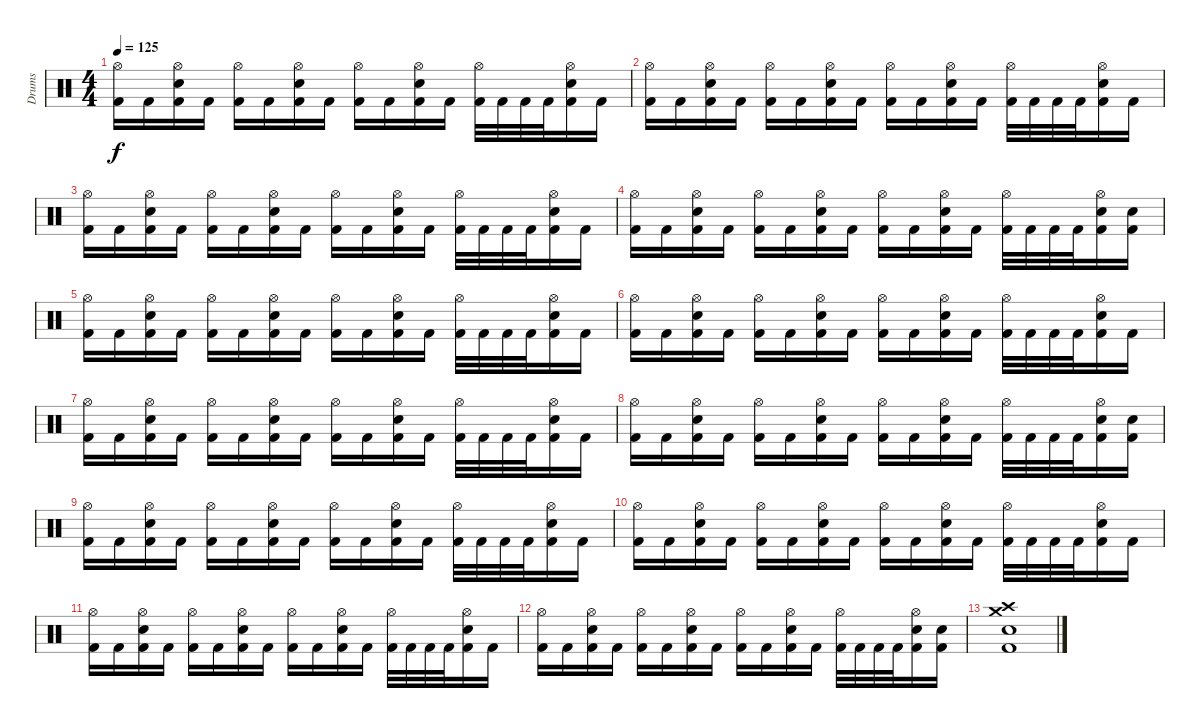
\track ("Drums" "Drums") {instrument percussion}
\staff {score}
\articulation defaults
\ts (4 4)
\tempo 125
\clef neutral
\ks c
("Hi-Hat (open)" "Kick (hit) 2").16{dy f} "Kick (hit) 2".16 ("Hi-Hat (open)" "Electric Snare (hit)" "Kick (hit) 2").16 "Kick (hit) 2".16 ("Hi-Hat (open)" "Kick (hit) 2").16 "Kick (hit) 2".16 ("Hi-Hat (open)" "Electric Snare (hit)" "Kick (hit) 2").16 "Kick (hit) 2".16 ("Hi-Hat (open)" "Kick (hit) 2").16 "Kick (hit) 2".16 ("Hi-Hat (open)" "Electric Snare (hit)" "Kick (hit) 2").16 "Kick (hit) 2".16 ("Hi-Hat (open)" "Kick (hit) 2").32 "Kick (hit) 2".32 "Kick (hit) 2".32 "Kick (hit) 2".32 ("Hi-Hat (open)" "Electric Snare (hit)" "Kick (hit) 2").16 "Kick (hit) 2".16 |
("Hi-Hat (open)" "Kick (hit) 2").16 "Kick (hit) 2".16 ("Hi-Hat (open)" "Electric Snare (hit)" "Kick (hit) 2").16 "Kick (hit) 2".16 ("Hi-Hat (open)" "Kick (hit) 2").16 "Kick (hit) 2".16 ("Hi-Hat (open)" "Electric Snare (hit)" "Kick (hit) 2").16 "Kick (hit) 2".16 ("Hi-Hat (open)" "Kick (hit) 2").16 "Kick (hit) 2".16 ("Hi-Hat (open)" "Electric Snare (hit)" "Kick (hit) 2").16 "Kick (hit) 2".16 ("Hi-Hat (open)" "Kick (hit) 2").32 "Kick (hit) 2".32 "Kick (hit) 2".32 "Kick (hit) 2".32 ("Hi-Hat (open)" "Electric Snare (hit)" "Kick (hit) 2").16 "Kick (hit) 2".16 |
("Hi-Hat (open)" "Kick (hit) 2").16 "Kick (hit) 2".16 ("Hi-Hat (open)" "Electric Snare (hit)" "Kick (hit) 2").16 "Kick (hit) 2".16 ("Hi-Hat (open)" "Kick (hit) 2").16 "Kick (hit) 2".16 ("Hi-Hat (open)" "Electric Snare (hit)" "Kick (hit) 2").16 "Kick (hit) 2".16 ("Hi-Hat (open)" "Kick (hit) 2").16 "Kick (hit) 2".16 ("Hi-Hat (open)" "Electric Snare (hit)" "Kick (hit) 2").16 "Kick (hit) 2".16 ("Hi-Hat (open)" "Kick (hit) 2").32 "Kick (hit) 2".32 "Kick (hit) 2".32 "Kick (hit) 2".32 ("Hi-Hat (open)" "Electric Snare (hit)" "Kick (hit) 2").16 "Kick (hit) 2".16 |
("Hi-Hat (open)" "Kick (hit) 2").16 "Kick (hit) 2".16 ("Hi-Hat (open)" "Electric Snare (hit)" "Kick (hit) 2").16 "Kick (hit) 2".16 ("Hi-Hat (open)" "Kick (hit) 2").16 "Kick (hit) 2".16 ("Hi-Hat (open)" "Electric Snare (hit)" "Kick (hit) 2").16 "Kick (hit) 2".16 ("Hi-Hat (open)" "Kick (hit) 2").16 "Kick (hit) 2".16 ("Hi-Hat (open)" "Electric Snare (hit)" "Kick (hit) 2").16 "Kick (hit) 2".16 ("Hi-Hat (open)" "Kick (hit) 2").32 "Kick (hit) 2".32 "Kick (hit) 2".32 "Kick (hit) 2".32 ("Hi-Hat (open)" "Electric Snare (hit)" "Kick (hit) 2").16 ("Electric Snare (hit)" "Kick (hit) 2").16 |
("Hi-Hat (open)" "Kick (hit) 2").16 "Kick (hit) 2".16 ("Hi-Hat (open)" "Electric Snare (hit)" "Kick (hit) 2").16 "Kick (hit) 2".16 ("Hi-Hat (open)" "Kick (hit) 2").16 "Kick (hit) 2".16 ("Hi-Hat (open)" "Electric Snare (hit)" "Kick (hit) 2").16 "Kick (hit) 2".16 ("Hi-Hat (open)" "Kick (hit) 2").16 "Kick (hit) 2".16 ("Hi-Hat (open)" "Electric Snare (hit)" "Kick (hit) 2").16 "Kick (hit) 2".16 ("Hi-Hat (open)" "Kick (hit) 2").32 "Kick (hit) 2".32 "Kick (hit) 2".32 "Kick (hit) 2".32 ("Hi-Hat (open)" "Electric Snare (hit)" "Kick (hit) 2").16 "Kick (hit) 2".16 |
("Hi-Hat (open)" "Kick (hit) 2").16 "Kick (hit) 2".16 ("Hi-Hat (open)" "Electric Snare (hit)" "Kick (hit) 2").16 "Kick (hit) 2".16 ("Hi-Hat (open)" "Kick (hit) 2").16 "Kick (hit) 2".16 ("Hi-Hat (open)" "Electric Snare (hit)" "Kick (hit) 2").16 "Kick (hit) 2".16 ("Hi-Hat (open)" "Kick (hit) 2").16 "Kick (hit) 2".16 ("Hi-Hat (open)" "Electric Snare (hit)" "Kick (hit) 2").16 "Kick (hit) 2".16 ("Hi-Hat (open)" "Kick (hit) 2").32 "Kick (hit) 2".32 "Kick (hit) 2".32 "Kick (hit) 2".32 ("Hi-Hat (open)" "Electric Snare (hit)" "Kick (hit) 2").16 "Kick (hit) 2".16 |
("Hi-Hat (open)" "Kick (hit) 2").16 "Kick (hit) 2".16 ("Hi-Hat (open)" "Electric Snare (hit)" "Kick (hit) 2").16 "Kick (hit) 2".16 ("Hi-Hat (open)" "Kick (hit) 2").16 "Kick (hit) 2".16 ("Hi-Hat (open)" "Electric Snare (hit)" "Kick (hit) 2").16 "Kick (hit) 2".16 ("Hi-Hat (open)" "Kick (hit) 2").16 "Kick (hit) 2".16 ("Hi-Hat (open)" "Electric Snare (hit)" "Kick (hit) 2").16 "Kick (hit) 2".16 ("Hi-Hat (open)" "Kick (hit) 2").32 "Kick (hit) 2".32 "Kick (hit) 2".32 "Kick (hit) 2".32 ("Hi-Hat (open)" "Electric Snare (hit)" "Kick (hit) 2").16 "Kick (hit) 2".16 |
("Hi-Hat (open)" "Kick (hit) 2").16 "Kick (hit) 2".16 ("Hi-Hat (open)" "Electric Snare (hit)" "Kick (hit) 2").16 "Kick (hit) 2".16 ("Hi-Hat (open)" "Kick (hit) 2").16 "Kick (hit) 2".16 ("Hi-Hat (open)" "Electric Snare (hit)" "Kick (hit) 2").16 "Kick (hit) 2".16 ("Hi-Hat (open)" "Kick (hit) 2").16 "Kick (hit) 2".16 ("Hi-Hat (open)" "Electric Snare (hit)" "Kick (hit) 2").16 "Kick (hit) 2".16 ("Hi-Hat (open)" "Kick (hit) 2").32 "Kick (hit) 2".32 "Kick (hit) 2".32 "Kick (hit) 2".32 ("Hi-Hat (open)" "Electric Snare (hit)" "Kick (hit) 2").16 ("Electric Snare (hit)" "Kick (hit) 2").16 |
("Hi-Hat (open)" "Kick (hit) 2").16 "Kick (hit) 2".16 ("Hi-Hat (open)" "Electric Snare (hit)" "Kick (hit) 2").16 "Kick (hit) 2".16 ("Hi-Hat (open)" "Kick (hit) 2").16 "Kick (hit) 2".16 ("Hi-Hat (open)" "Electric Snare (hit)" "Kick (hit) 2").16 "Kick (hit) 2".16 ("Hi-Hat (open)" "Kick (hit) 2").16 "Kick (hit) 2".16 ("Hi-Hat (open)" "Electric Snare (hit)" "Kick (hit) 2").16 "Kick (hit) 2".16 ("Hi-Hat (open)" "Kick (hit) 2").32 "Kick (hit) 2".32 "Kick (hit) 2".32 "Kick (hit) 2".32 ("Hi-Hat (open)" "Electric Snare (hit)" "Kick (hit) 2").16 "Kick (hit) 2".16 |
("Hi-Hat (open)" "Kick (hit) 2").16 "Kick (hit) 2".16 ("Hi-Hat (open)" "Electric Snare (hit)" "Kick (hit) 2").16 "Kick (hit) 2".16 ("Hi-Hat (open)" "Kick (hit) 2").16 "Kick (hit) 2".16 ("Hi-Hat (open)" "Electric Snare (hit)" "Kick (hit) 2").16 "Kick (hit) 2".16 ("Hi-Hat (open)" "Kick (hit) 2").16 "Kick (hit) 2".16 ("Hi-Hat (open)" "Electric Snare (hit)" "Kick (hit) 2").16 "Kick (hit) 2".16 ("Hi-Hat (open)" "Kick (hit) 2").32 "Kick (hit) 2".32 "Kick (hit) 2".32 "Kick (hit) 2".32 ("Hi-Hat (open)" "Electric Snare (hit)" "Kick (hit) 2").16 "Kick (hit) 2".16 |
("Hi-Hat (open)" "Kick (hit) 2").16 "Kick (hit) 2".16 ("Hi-Hat (open)" "Electric Snare (hit)" "Kick (hit) 2").16 "Kick (hit) 2".16 ("Hi-Hat (open)" "Kick (hit) 2").16 "Kick (hit) 2".16 ("Hi-Hat (open)" "Electric Snare (hit)" "Kick (hit) 2").16 "Kick (hit) 2".16 ("Hi-Hat (open)" "Kick (hit) 2").16 "Kick (hit) 2".16 ("Hi-Hat (open)" "Electric Snare (hit)" "Kick (hit) 2").16 "Kick (hit) 2".16 ("Hi-Hat (open)" "Kick (hit) 2").32 "Kick (hit) 2".32 "Kick (hit) 2".32 "Kick (hit) 2".32 ("Hi-Hat (open)" "Electric Snare (hit)" "Kick (hit) 2").16 "Kick (hit) 2".16 |
("Hi-Hat (open)" "Kick (hit) 2").16 "Kick (hit) 2".16 ("Hi-Hat (open)" "Electric Snare (hit)" "Kick (hit) 2").16 "Kick (hit) 2".16 ("Hi-Hat (open)" "Kick (hit) 2").16 "Kick (hit) 2".16 ("Hi-Hat (open)" "Electric Snare (hit)" "Kick (hit) 2").16 "Kick (hit) 2".16 ("Hi-Hat (open)" "Kick (hit) 2").16 "Kick (hit) 2".16 ("Hi-Hat (open)" "Electric Snare (hit)" "Kick (hit) 2").16 "Kick (hit) 2".16 ("Hi-Hat (open)" "Kick (hit) 2").32 "Kick (hit) 2".32 "Kick (hit) 2".32 "Kick (hit) 2".32 ("Hi-Hat (open)" "Electric Snare (hit)" "Kick (hit) 2").16 ("Electric Snare (hit)" "Kick (hit) 2").16 |
("Crash high (hit)" "Crash medium (hit)" "Electric Snare (hit)" "Kick (hit) 2").1
